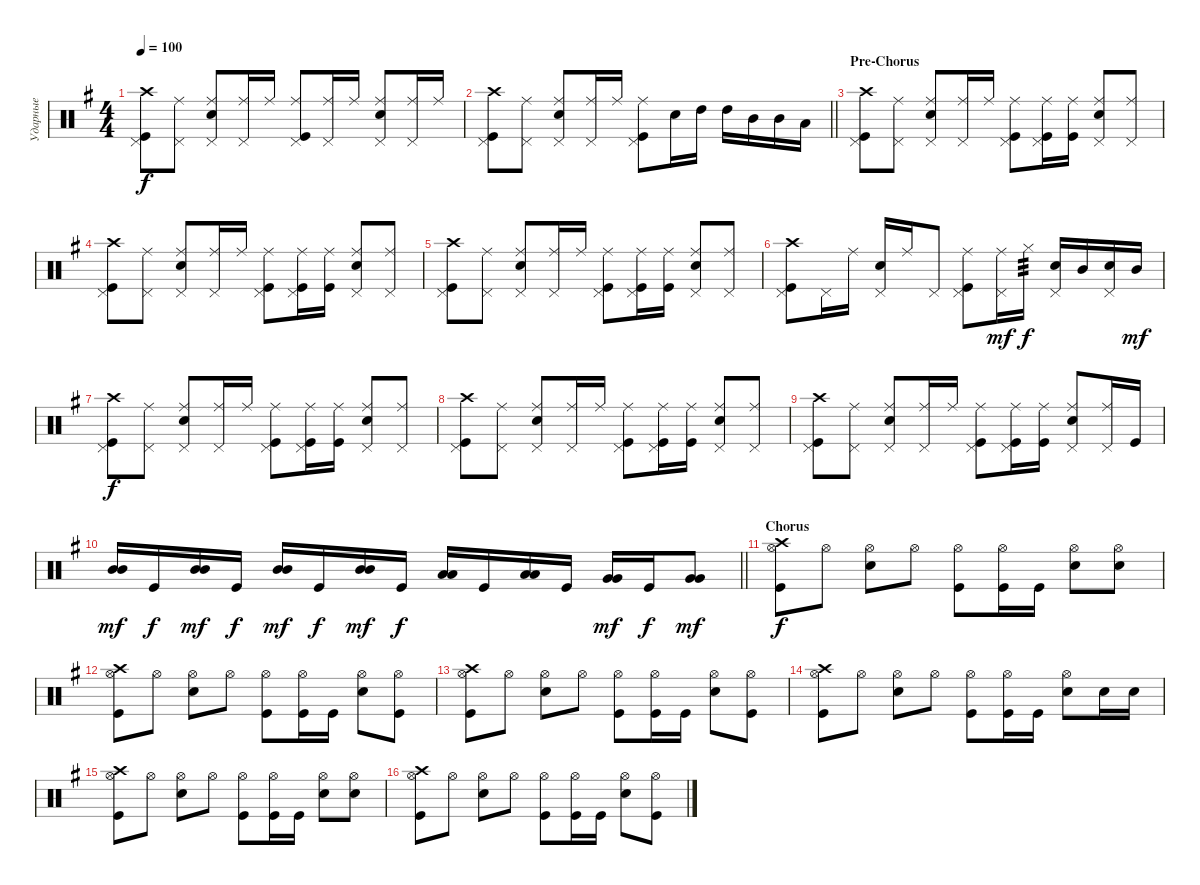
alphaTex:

\track ("Ударные" "Ударные") {instrument percussion}
\staff {score}
\articulation defaults
\ts (4 4)
\tempo 100
\clef neutral
\ks eminor
("Crash high (hit)" "Kick (hit)" "Pedal Hi-Hat (hit)").8{dy f} ("Pedal Hi-Hat (hit)" "Ride (middle)").8 ("Ride (middle)" "Snare (hit) 2" "Pedal Hi-Hat (hit)").8 ("Ride (middle)" "Pedal Hi-Hat (hit)").16 "Ride (middle)".16 ("Ride (middle)" "Kick (hit)" "Pedal Hi-Hat (hit)").8 ("Ride (middle)" "Pedal Hi-Hat (hit)").16 "Ride (middle)".16 ("Ride (middle)" "Snare (hit) 2" "Pedal Hi-Hat (hit)").8 ("Ride (middle)" "Pedal Hi-Hat (hit)").16 "Ride (middle)".16 |
\barLineRight lightlight
("Crash high (hit)" "Kick (hit)" "Pedal Hi-Hat (hit)").8 ("Pedal Hi-Hat (hit)" "Ride (middle)").8 ("Ride (middle)" "Snare (hit) 2" "Pedal Hi-Hat (hit)").8 ("Ride (middle)" "Pedal Hi-Hat (hit)").16 "Ride (middle)".16 ("Ride (middle)" "Kick (hit)" "Pedal Hi-Hat (hit)").8 "Snare (hit) 2".16 "High Tom (hit)".16 "High Tom (hit)".16 "Mid Tom (hit)".16 "Mid Tom (hit)".16 "Low Tom (hit)".16 |
\section ("" "Pre-Chorus")
("Crash high (hit)" "Kick (hit)" "Pedal Hi-Hat (hit)").8 ("Pedal Hi-Hat (hit)" "Ride (middle)").8 ("Ride (middle)" "Snare (hit) 2" "Pedal Hi-Hat (hit)").8 ("Ride (middle)" "Pedal Hi-Hat (hit)").16 "Ride (middle)".16 ("Ride (middle)" "Kick (hit)" "Pedal Hi-Hat (hit)").8 ("Ride (middle)" "Pedal Hi-Hat (hit)" "Kick (hit)").16 ("Ride (middle)" "Kick (hit)").16 ("Ride (middle)" "Snare (hit) 2" "Pedal Hi-Hat (hit)").8 ("Ride (middle)" "Pedal Hi-Hat (hit)").8 |
("Crash high (hit)" "Kick (hit)" "Pedal Hi-Hat (hit)").8 ("Pedal Hi-Hat (hit)" "Ride (middle)").8 ("Ride (middle)" "Snare (hit) 2" "Pedal Hi-Hat (hit)").8 ("Ride (middle)" "Pedal Hi-Hat (hit)").16 "Ride (middle)".16 ("Ride (middle)" "Kick (hit)" "Pedal Hi-Hat (hit)").8 ("Ride (middle)" "Pedal Hi-Hat (hit)" "Kick (hit)").16 ("Ride (middle)" "Kick (hit)").16 ("Ride (middle)" "Snare (hit) 2" "Pedal Hi-Hat (hit)").8 ("Ride (middle)" "Pedal Hi-Hat (hit)").8 |
("Crash high (hit)" "Kick (hit)" "Pedal Hi-Hat (hit)").8 ("Pedal Hi-Hat (hit)" "Ride (middle)").8 ("Ride (middle)" "Snare (hit) 2" "Pedal Hi-Hat (hit)").8 ("Ride (middle)" "Pedal Hi-Hat (hit)").16 "Ride (middle)".16 ("Ride (middle)" "Kick (hit)" "Pedal Hi-Hat (hit)").8 ("Ride (middle)" "Pedal Hi-Hat (hit)" "Kick (hit)").16 ("Ride (middle)" "Kick (hit)").16 ("Ride (middle)" "Snare (hit) 2" "Pedal Hi-Hat (hit)").8 ("Ride (middle)" "Pedal Hi-Hat (hit)").8 |
("Crash high (hit)" "Kick (hit)" "Pedal Hi-Hat (hit)").8 "Pedal Hi-Hat (hit)".16 "Ride (middle)".16 ("Snare (hit) 2" "Pedal Hi-Hat (hit)").16 "Ride (middle)".16 "Pedal Hi-Hat (hit)".8 ("Ride (middle)" "Kick (hit)" "Pedal Hi-Hat (hit)").8 ("Pedal Hi-Hat (hit)" "Ride (middle)").16{dy mf} "Hi-Hat (closed)".16{tp 3 dy f} ("Snare (hit) 2" "Pedal Hi-Hat (hit)").16 "Mid Tom (hit)".16 ("Snare (hit) 2" "Pedal Hi-Hat (hit)").16 "Mid Tom (hit)".16{dy mf} |
("Crash high (hit)" "Kick (hit)" "Pedal Hi-Hat (hit)").8{dy f} ("Pedal Hi-Hat (hit)" "Ride (middle)").8 ("Ride (middle)" "Snare (hit) 2" "Pedal Hi-Hat (hit)").8 ("Ride (middle)" "Pedal Hi-Hat (hit)").16 "Ride (middle)".16 ("Ride (middle)" "Kick (hit)" "Pedal Hi-Hat (hit)").8 ("Ride (middle)" "Pedal Hi-Hat (hit)" "Kick (hit)").16 ("Ride (middle)" "Kick (hit)").16 ("Ride (middle)" "Snare (hit) 2" "Pedal Hi-Hat (hit)").8 ("Ride (middle)" "Pedal Hi-Hat (hit)").8 |
("Crash high (hit)" "Kick (hit)" "Pedal Hi-Hat (hit)").8 ("Pedal Hi-Hat (hit)" "Ride (middle)").8 ("Ride (middle)" "Snare (hit) 2" "Pedal Hi-Hat (hit)").8 ("Ride (middle)" "Pedal Hi-Hat (hit)").16 "Ride (middle)".16 ("Ride (middle)" "Kick (hit)" "Pedal Hi-Hat (hit)").8 ("Ride (middle)" "Pedal Hi-Hat (hit)" "Kick (hit)").16 ("Ride (middle)" "Kick (hit)").16 ("Ride (middle)" "Snare (hit) 2" "Pedal Hi-Hat (hit)").8 ("Ride (middle)" "Pedal Hi-Hat (hit)").8 |
("Crash high (hit)" "Kick (hit)" "Pedal Hi-Hat (hit)").8 ("Pedal Hi-Hat (hit)" "Ride (middle)").8 ("Ride (middle)" "Snare (hit) 2" "Pedal Hi-Hat (hit)").8 ("Ride (middle)" "Pedal Hi-Hat (hit)").16 "Ride (middle)".16 ("Ride (middle)" "Kick (hit)" "Pedal Hi-Hat (hit)").8 ("Ride (middle)" "Pedal Hi-Hat (hit)" "Kick (hit)").16 ("Ride (middle)" "Kick (hit)").16 ("Ride (middle)" "Snare (hit) 2" "Pedal Hi-Hat (hit)").8 ("Ride (middle)" "Pedal Hi-Hat (hit)").16 "Kick (hit)".16 |
\barLineRight lightlight
("Mid Tom (hit)" "Mid Tom (hit)").16{bd 60 dy mf} "Kick (hit)".16{dy f} ("Mid Tom (hit)" "Mid Tom (hit)").16{bd 120 dy mf} "Kick (hit)".16{dy f} ("Mid Tom (hit)" "Mid Tom (hit)").16{bd 60 dy mf} "Kick (hit)".16{dy f} ("Mid Tom (hit)" "Mid Tom (hit)").16{bd 120 dy mf} "Kick (hit)".16{dy f} ("Low Tom (hit)" "Low Tom (hit)").16{bd 120} "Kick (hit)".16 ("Low Tom (hit)" "Low Tom (hit)").16{bd 120} "Kick (hit)".16 ("Very Low Tom (hit)" "Very Low Tom (hit)").16{bd 120 dy mf} "Kick (hit)".16{dy f} ("Very Low Tom (hit)" "Very Low Tom (hit)").8{bd 120 dy mf} |
\section ("" "Chorus")
("Hi-Hat (open)" "Crash high (hit)" "Kick (hit)").8{dy f} "Hi-Hat (open)".8 ("Hi-Hat (open)" "Snare (hit) 2").8 "Hi-Hat (open)".8 ("Hi-Hat (open)" "Kick (hit)").8 ("Hi-Hat (open)" "Kick (hit)").16 "Kick (hit)".16 ("Hi-Hat (open)" "Snare (hit) 2").8 ("Hi-Hat (open)" "Snare (hit) 2").8 |
("Hi-Hat (open)" "Crash high (hit)" "Kick (hit)").8 "Hi-Hat (open)".8 ("Hi-Hat (open)" "Snare (hit) 2").8 "Hi-Hat (open)".8 ("Hi-Hat (open)" "Kick (hit)").8 ("Hi-Hat (open)" "Kick (hit)").16 "Kick (hit)".16 ("Hi-Hat (open)" "Snare (hit) 2").8 ("Hi-Hat (open)" "Kick (hit)").8 |
("Hi-Hat (open)" "Crash high (hit)" "Kick (hit)").8 "Hi-Hat (open)".8 ("Hi-Hat (open)" "Snare (hit) 2").8 "Hi-Hat (open)".8 ("Hi-Hat (open)" "Kick (hit)").8 ("Hi-Hat (open)" "Kick (hit)").16 "Kick (hit)".16 ("Hi-Hat (open)" "Snare (hit) 2").8 ("Hi-Hat (open)" "Kick (hit)").8 |
("Hi-Hat (open)" "Crash high (hit)" "Kick (hit)").8 "Hi-Hat (open)".8 ("Hi-Hat (open)" "Snare (hit) 2").8 "Hi-Hat (open)".8 ("Hi-Hat (open)" "Kick (hit)").8 ("Hi-Hat (open)" "Kick (hit)").16 "Kick (hit)".16 ("Hi-Hat (open)" "Snare (hit) 2").8 "Snare (hit) 2".16 "Snare (hit) 2".16 |
("Hi-Hat (open)" "Crash high (hit)" "Kick (hit)").8 "Hi-Hat (open)".8 ("Hi-Hat (open)" "Snare (hit) 2").8 "Hi-Hat (open)".8 ("Hi-Hat (open)" "Kick (hit)").8 ("Hi-Hat (open)" "Kick (hit)").16 "Kick (hit)".16 ("Hi-Hat (open)" "Snare (hit) 2").8 ("Hi-Hat (open)" "Snare (hit) 2").8 |
("Hi-Hat (open)" "Crash high (hit)" "Kick (hit)").8 "Hi-Hat (open)".8 ("Hi-Hat (open)" "Snare (hit) 2").8 "Hi-Hat (open)".8 ("Hi-Hat (open)" "Kick (hit)").8 ("Hi-Hat (open)" "Kick (hit)").16 "Kick (hit)".16 ("Hi-Hat (open)" "Snare (hit) 2").8 ("Hi-Hat (open)" "Kick (hit)").8
